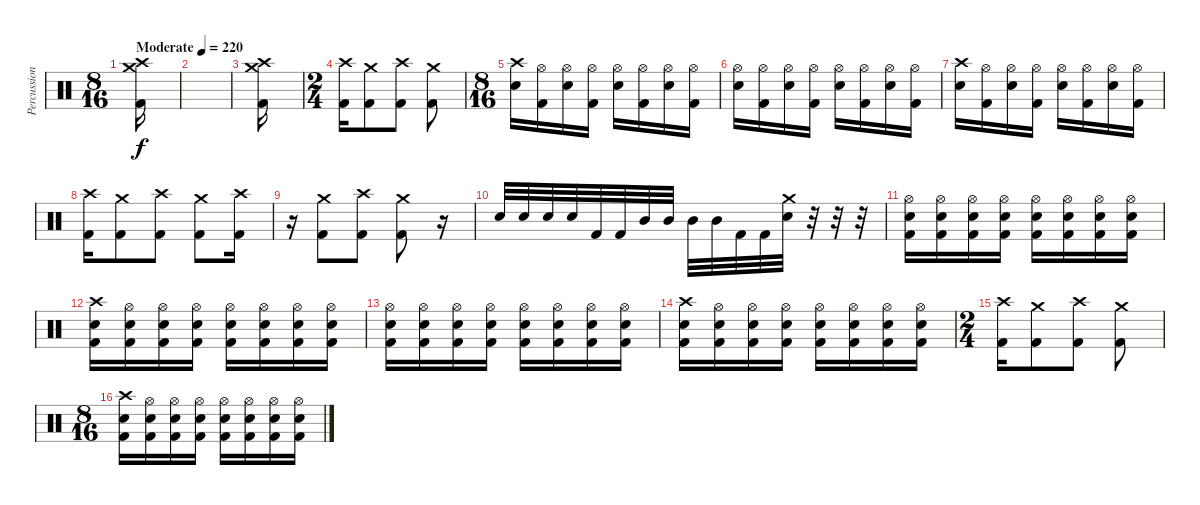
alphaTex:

\track ("Percussion" "Percussion") {instrument percussion}
\staff {score}
\articulation defaults
\ts (8 16)
\tempo (220 "Moderate")
\clef neutral
\ks c
("Crash medium (hit)" "Crash high (hit)" "Kick (hit) 2").16{dy f} |
|
("Crash medium (hit)" "Crash high (hit)" "Kick (hit) 2").16 |
\ts (2 4)
("Crash high (hit)" "Kick (hit) 2").16 ("Crash medium (hit)" "Kick (hit) 2").8 ("Crash high (hit)" "Kick (hit) 2").8 ("Crash medium (hit)" "Kick (hit) 2").8 |
\ts (8 16)
("Crash high (hit)" "Electric Snare (hit)").16 ("Hi-Hat (open)" "Kick (hit) 2").16 ("Hi-Hat (open)" "Electric Snare (hit)").16 ("Hi-Hat (open)" "Kick (hit) 2").16 ("Hi-Hat (open)" "Electric Snare (hit)").16 ("Hi-Hat (open)" "Kick (hit) 2").16 ("Hi-Hat (open)" "Electric Snare (hit)").16 ("Hi-Hat (open)" "Kick (hit) 2").16 |
("Hi-Hat (open)" "Electric Snare (hit)").16 ("Hi-Hat (open)" "Kick (hit) 2").16 ("Hi-Hat (open)" "Electric Snare (hit)").16 ("Hi-Hat (open)" "Kick (hit) 2").16 ("Hi-Hat (open)" "Electric Snare (hit)").16 ("Hi-Hat (open)" "Kick (hit) 2").16 ("Hi-Hat (open)" "Electric Snare (hit)").16 ("Hi-Hat (open)" "Kick (hit) 2").16 |
("Crash high (hit)" "Electric Snare (hit)").16 ("Hi-Hat (open)" "Kick (hit) 2").16 ("Hi-Hat (open)" "Electric Snare (hit)").16 ("Hi-Hat (open)" "Kick (hit) 2").16 ("Hi-Hat (open)" "Electric Snare (hit)").16 ("Hi-Hat (open)" "Kick (hit) 2").16 ("Hi-Hat (open)" "Electric Snare (hit)").16 ("Hi-Hat (open)" "Kick (hit) 2").16 |
("Crash high (hit)" "Kick (hit) 2").16 ("Crash medium (hit)" "Kick (hit) 2").8 ("Crash high (hit)" "Kick (hit) 2").8 ("Crash medium (hit)" "Kick (hit) 2").8 ("Crash high (hit)" "Kick (hit) 2").16 |
r.16 ("Crash medium (hit)" "Kick (hit) 2").8 ("Crash high (hit)" "Kick (hit) 2").8 ("Crash medium (hit)" "Kick (hit) 2").8 r.16 |
"Electric Snare (hit)".32 "Electric Snare (hit)".32 "Electric Snare (hit)".32 "Electric Snare (hit)".32 "Kick (hit) 2".32 "Kick (hit) 2".32 "Mid Tom (hit)".32 "Mid Tom (hit)".32 "Mid Tom (hit)".32 "Mid Tom (hit)".32 "Kick (hit) 2".32 "Kick (hit) 2".32 ("Crash medium (hit)" "Electric Snare (hit)").32 r.32 r.32 r.32 |
("Hi-Hat (open)" "Kick (hit) 2" "Electric Snare (hit)").16 ("Hi-Hat (open)" "Kick (hit) 2" "Electric Snare (hit)").16 ("Hi-Hat (open)" "Kick (hit) 2" "Electric Snare (hit)").16 ("Hi-Hat (open)" "Kick (hit) 2" "Electric Snare (hit)").16 ("Hi-Hat (open)" "Kick (hit) 2" "Electric Snare (hit)").16 ("Hi-Hat (open)" "Kick (hit) 2" "Electric Snare (hit)").16 ("Hi-Hat (open)" "Kick (hit) 2" "Electric Snare (hit)").16 ("Hi-Hat (open)" "Kick (hit) 2" "Electric Snare (hit)").16 |
("Crash high (hit)" "Kick (hit) 2" "Electric Snare (hit)").16 ("Hi-Hat (open)" "Kick (hit) 2" "Electric Snare (hit)").16 ("Hi-Hat (open)" "Kick (hit) 2" "Electric Snare (hit)").16 ("Hi-Hat (open)" "Kick (hit) 2" "Electric Snare (hit)").16 ("Hi-Hat (open)" "Kick (hit) 2" "Electric Snare (hit)").16 ("Hi-Hat (open)" "Kick (hit) 2" "Electric Snare (hit)").16 ("Hi-Hat (open)" "Kick (hit) 2" "Electric Snare (hit)").16 ("Hi-Hat (open)" "Kick (hit) 2" "Electric Snare (hit)").16 |
("Hi-Hat (open)" "Kick (hit) 2" "Electric Snare (hit)").16 ("Hi-Hat (open)" "Kick (hit) 2" "Electric Snare (hit)").16 ("Hi-Hat (open)" "Kick (hit) 2" "Electric Snare (hit)").16 ("Hi-Hat (open)" "Kick (hit) 2" "Electric Snare (hit)").16 ("Hi-Hat (open)" "Kick (hit) 2" "Electric Snare (hit)").16 ("Hi-Hat (open)" "Kick (hit) 2" "Electric Snare (hit)").16 ("Hi-Hat (open)" "Kick (hit) 2" "Electric Snare (hit)").16 ("Hi-Hat (open)" "Kick (hit) 2" "Electric Snare (hit)").16 |
("Crash high (hit)" "Kick (hit) 2" "Electric Snare (hit)").16 ("Hi-Hat (open)" "Kick (hit) 2" "Electric Snare (hit)").16 ("Hi-Hat (open)" "Kick (hit) 2" "Electric Snare (hit)").16 ("Hi-Hat (open)" "Kick (hit) 2" "Electric Snare (hit)").16 ("Hi-Hat (open)" "Kick (hit) 2" "Electric Snare (hit)").16 ("Hi-Hat (open)" "Kick (hit) 2" "Electric Snare (hit)").16 ("Hi-Hat (open)" "Kick (hit) 2" "Electric Snare (hit)").16 ("Hi-Hat (open)" "Kick (hit) 2" "Electric Snare (hit)").16 |
\ts (2 4)
("Crash high (hit)" "Kick (hit) 2").16 ("Crash medium (hit)" "Kick (hit) 2").8 ("Crash high (hit)" "Kick (hit) 2").8 ("Crash medium (hit)" "Kick (hit) 2").8 |
\ts (8 16)
("Crash high (hit)" "Kick (hit) 2" "Electric Snare (hit)").16 ("Hi-Hat (open)" "Kick (hit) 2" "Electric Snare (hit)").16 ("Hi-Hat (open)" "Kick (hit) 2" "Electric Snare (hit)").16 ("Hi-Hat (open)" "Kick (hit) 2" "Electric Snare (hit)").16 ("Hi-Hat (open)" "Kick (hit) 2" "Electric Snare (hit)").16 ("Hi-Hat (open)" "Kick (hit) 2" "Electric Snare (hit)").16 ("Hi-Hat (open)" "Kick (hit) 2" "Electric Snare (hit)").16 ("Hi-Hat (open)" "Kick (hit) 2" "Electric Snare (hit)").16
